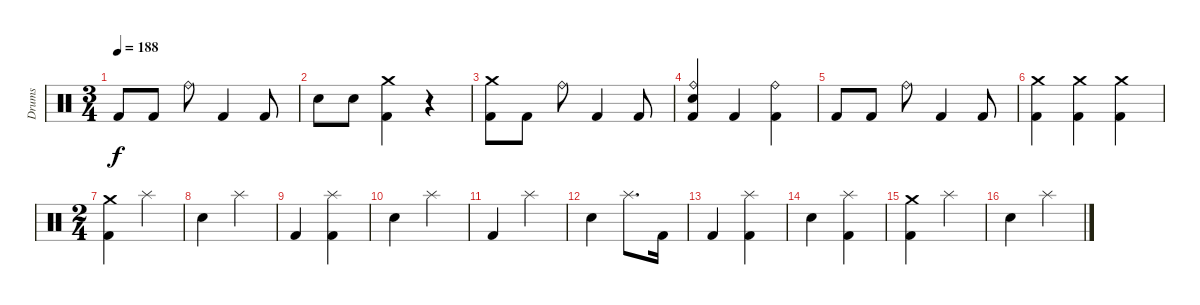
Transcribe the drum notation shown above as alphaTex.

\track ("Drums" "Drums") {instrument percussion}
\staff {score}
\articulation defaults
\ts (3 4)
\tempo 188
\clef neutral
\ks c "Kick (hit) 2".8{dy f} "Kick (hit) 2".8 "Ride (bell)".8 "Kick (hit) 2".4 "Kick (hit) 2".8
|
"Electric Snare (hit)".8 "Electric Snare (hit)".8 ("Crash medium (hit)" "Kick (hit) 2").4 r.4 |
("Crash medium (hit)" "Kick (hit) 2").8 "Kick (hit) 2".8 "Ride (bell)".8 "Kick (hit) 2".4 "Kick (hit) 2".8 |
("Electric Snare (hit)" "Ride (bell)" "Kick (hit) 2").4 "Kick (hit) 2".4 ("Ride (bell)" "Kick (hit) 2").4 |
"Kick (hit) 2".8 "Kick (hit) 2".8 "Ride (bell)".8 "Kick (hit) 2".4 "Kick (hit) 2".8 |
("Crash medium (hit)" "Kick (hit) 2").4 ("Crash medium (hit)" "Kick (hit) 2").4 ("Crash medium (hit)" "Kick (hit) 2").4 |
\ts (2 4)
("Crash medium (hit)" "Kick (hit) 2").4 "Splash (hit)".4 |
"Electric Snare (hit)".4 "Splash (hit)".4 |
"Kick (hit) 2".4 ("Splash (hit)" "Kick (hit) 2").4 |
"Electric Snare (hit)".4 "Splash (hit)".4 |
"Kick (hit) 2".4 "Splash (hit)".4 |
"Electric Snare (hit)".4 "Splash (hit)".8{d} "Kick (hit) 2".16 |
"Kick (hit) 2".4 ("Splash (hit)" "Kick (hit) 2").4 |
"Electric Snare (hit)".4 ("Splash (hit)" "Kick (hit) 2").4 |
("Crash medium (hit)" "Kick (hit) 2").4 "Splash (hit)".4 |
"Electric Snare (hit)".4 "Splash (hit)".4
